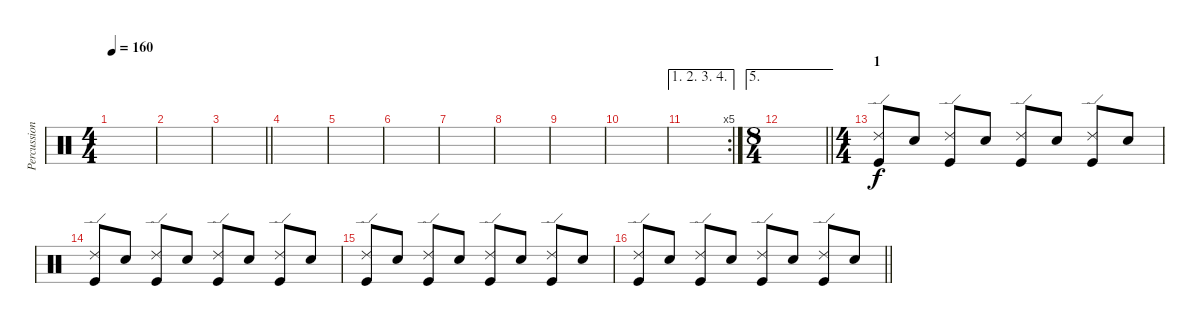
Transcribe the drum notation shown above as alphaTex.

\track ("Percussion" "Percussion") {instrument percussion}
\staff {score}
\articulation defaults
\ts (4 4)
\tempo 160
\clef neutral
\ks c
|
|
\barLineRight lightlight
|
|
|
|
|
|
|
|
\ae (1 2 3 4)
\rc 5
|
\ae 5
\ts (8 4)
\barLineRight lightlight
|
\ts (4 4)
\section ("" "1")
("Ride (edge) 2" "Kick (hit)").8 "Snare (hit) 2".8 ("Ride (edge) 2" "Kick (hit)").8 "Snare (hit) 2".8 ("Ride (edge) 2" "Kick (hit)").8 "Snare (hit) 2".8 ("Ride (edge) 2" "Kick (hit)").8 "Snare (hit) 2".8 |
("Ride (edge) 2" "Kick (hit)").8 "Snare (hit) 2".8 ("Ride (edge) 2" "Kick (hit)").8 "Snare (hit) 2".8 ("Ride (edge) 2" "Kick (hit)").8 "Snare (hit) 2".8 ("Ride (edge) 2" "Kick (hit)").8 "Snare (hit) 2".8 |
("Ride (edge) 2" "Kick (hit)").8 "Snare (hit) 2".8 ("Ride (edge) 2" "Kick (hit)").8 "Snare (hit) 2".8 ("Ride (edge) 2" "Kick (hit)").8 "Snare (hit) 2".8 ("Ride (edge) 2" "Kick (hit)").8 "Snare (hit) 2".8 |
\barLineRight lightlight
("Ride (edge) 2" "Kick (hit)").8 "Snare (hit) 2".8 ("Ride (edge) 2" "Kick (hit)").8 "Snare (hit) 2".8 ("Ride (edge) 2" "Kick (hit)").8 "Snare (hit) 2".8 ("Ride (edge) 2" "Kick (hit)").8 "Snare (hit) 2".8
